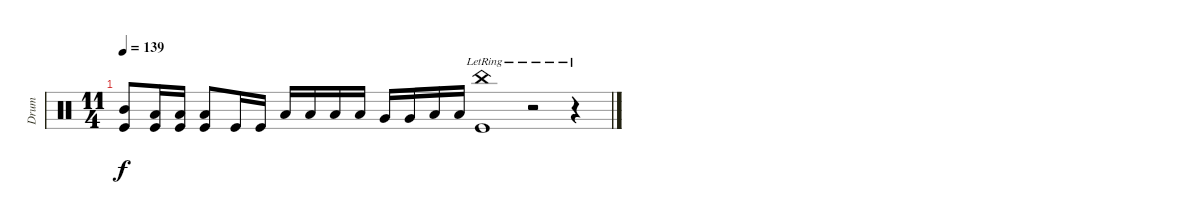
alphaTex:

\track ("Drum" "Drum") {instrument percussion}
\staff {score}
\articulation defaults
\ts (11 4)
\tempo 139
\clef neutral
\ks c
("Mid Tom (hit)" "Kick (hit)").8{dy f} ("Low Floor Tom (hit)" "Kick (hit)").16 ("Low Floor Tom (hit)" "Kick (hit)").16 ("Low Floor Tom (hit)" "Kick (hit)").8 "Kick (hit)".16 "Kick (hit)".16 "Low Tom (hit)".16 "Low Tom (hit)".16 "Low Tom (hit)".16 "Low Tom (hit)".16 "Very Low Tom (hit)".16 "Very Low Tom (hit)".16 "Low Floor Tom (hit)".16 "Low Floor Tom (hit)".16 ("China (hit)"{lr} "Kick (hit)").1 r.2 r.4
